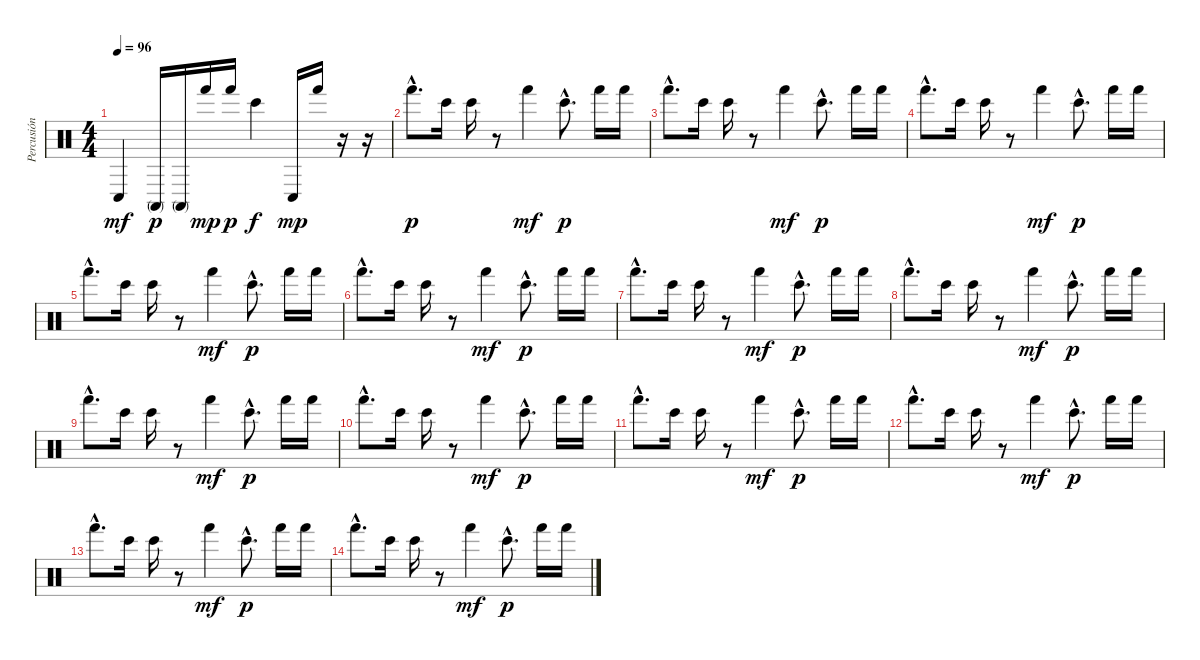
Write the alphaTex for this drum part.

\track ("Percusión" "Percusión") {instrument percussion}
\staff {score}
\articulation defaults
\ts (4 4)
\tempo 96
\clef neutral
\ks c "Conga low (hit)".4{dy mf} "Conga high (mute)".16{dy p} "Conga high (mute)".16 "Hand (hit)".16{dy mp} "Hand (hit)".16{dy p} "Bongo High (hit)".4{dy f} "Conga low (hit)".16{dy mp} "Hand (hit)".16
r.16 r.16 |
"Hand (hit)"{hac}.8{d dy p} "Bongo High (hit)".16 "Bongo High (hit)".16 r.8 "Hand (hit)".4{dy mf} "Bongo High (hit)"{hac}.8{d dy p} "Hand (hit)".16 "Hand (hit)".16 |
"Hand (hit)"{hac}.8{d} "Bongo High (hit)".16 "Bongo High (hit)".16 r.8 "Hand (hit)".4{dy mf} "Bongo High (hit)"{hac}.8{d dy p} "Hand (hit)".16 "Hand (hit)".16 |
"Hand (hit)"{hac}.8{d} "Bongo High (hit)".16 "Bongo High (hit)".16 r.8 "Hand (hit)".4{dy mf} "Bongo High (hit)"{hac}.8{d dy p} "Hand (hit)".16 "Hand (hit)".16 |
"Hand (hit)"{hac}.8{d} "Bongo High (hit)".16 "Bongo High (hit)".16 r.8 "Hand (hit)".4{dy mf} "Bongo High (hit)"{hac}.8{d dy p} "Hand (hit)".16 "Hand (hit)".16 |
"Hand (hit)"{hac}.8{d} "Bongo High (hit)".16 "Bongo High (hit)".16 r.8 "Hand (hit)".4{dy mf} "Bongo High (hit)"{hac}.8{d dy p} "Hand (hit)".16 "Hand (hit)".16 |
"Hand (hit)"{hac}.8{d} "Bongo High (hit)".16 "Bongo High (hit)".16 r.8 "Hand (hit)".4{dy mf} "Bongo High (hit)"{hac}.8{d dy p} "Hand (hit)".16 "Hand (hit)".16 |
"Hand (hit)"{hac}.8{d} "Bongo High (hit)".16 "Bongo High (hit)".16 r.8 "Hand (hit)".4{dy mf} "Bongo High (hit)"{hac}.8{d dy p} "Hand (hit)".16 "Hand (hit)".16 |
"Hand (hit)"{hac}.8{d} "Bongo High (hit)".16 "Bongo High (hit)".16 r.8 "Hand (hit)".4{dy mf} "Bongo High (hit)"{hac}.8{d dy p} "Hand (hit)".16 "Hand (hit)".16 |
"Hand (hit)"{hac}.8{d} "Bongo High (hit)".16 "Bongo High (hit)".16 r.8 "Hand (hit)".4{dy mf} "Bongo High (hit)"{hac}.8{d dy p} "Hand (hit)".16 "Hand (hit)".16 |
"Hand (hit)"{hac}.8{d} "Bongo High (hit)".16 "Bongo High (hit)".16 r.8 "Hand (hit)".4{dy mf} "Bongo High (hit)"{hac}.8{d dy p} "Hand (hit)".16 "Hand (hit)".16 |
"Hand (hit)"{hac}.8{d} "Bongo High (hit)".16 "Bongo High (hit)".16 r.8 "Hand (hit)".4{dy mf} "Bongo High (hit)"{hac}.8{d dy p} "Hand (hit)".16 "Hand (hit)".16 |
"Hand (hit)"{hac}.8{d} "Bongo High (hit)".16 "Bongo High (hit)".16 r.8 "Hand (hit)".4{dy mf} "Bongo High (hit)"{hac}.8{d dy p} "Hand (hit)".16 "Hand (hit)".16 |
"Hand (hit)"{hac}.8{d} "Bongo High (hit)".16 "Bongo High (hit)".16 r.8 "Hand (hit)".4{dy mf} "Bongo High (hit)"{hac}.8{d dy p} "Hand (hit)".16 "Hand (hit)".16
